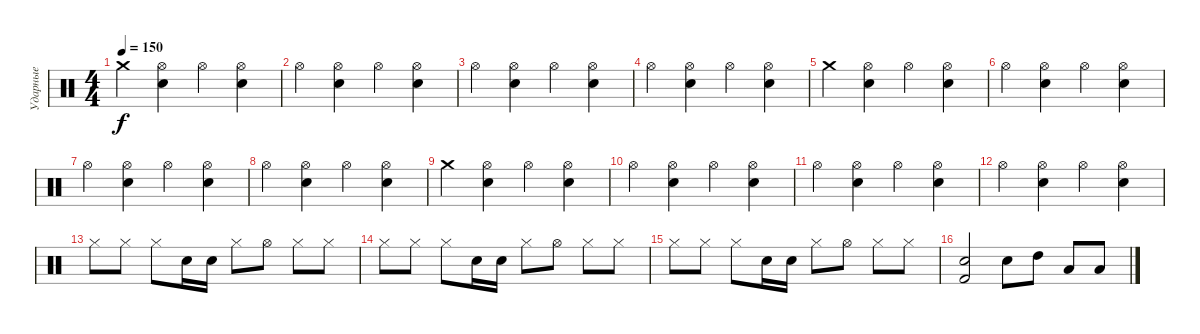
\track ("Ударные" "Ударные") {instrument percussion}
\staff {score}
\articulation defaults
\ts (4 4)
\tempo 150
\clef neutral
\ks c "Crash medium (hit)".4{dy f}
("Hi-Hat (open)" "Snare (hit) 2").4 "Hi-Hat (open)".4 ("Hi-Hat (open)" "Snare (hit) 2").4 |
"Hi-Hat (open)".4 ("Hi-Hat (open)" "Snare (hit) 2").4 "Hi-Hat (open)".4 ("Hi-Hat (open)" "Snare (hit) 2").4 |
"Hi-Hat (open)".4 ("Hi-Hat (open)" "Snare (hit) 2").4 "Hi-Hat (open)".4 ("Hi-Hat (open)" "Snare (hit) 2").4 |
"Hi-Hat (open)".4 ("Hi-Hat (open)" "Snare (hit) 2").4 "Hi-Hat (open)".4 ("Hi-Hat (open)" "Snare (hit) 2").4 |
"Crash medium (hit)".4 ("Hi-Hat (open)" "Snare (hit) 2").4 "Hi-Hat (open)".4 ("Hi-Hat (open)" "Snare (hit) 2").4 |
"Hi-Hat (open)".4 ("Hi-Hat (open)" "Snare (hit) 2").4 "Hi-Hat (open)".4 ("Hi-Hat (open)" "Snare (hit) 2").4 |
"Hi-Hat (open)".4 ("Hi-Hat (open)" "Snare (hit) 2").4 "Hi-Hat (open)".4 ("Hi-Hat (open)" "Snare (hit) 2").4 |
"Hi-Hat (open)".4 ("Hi-Hat (open)" "Snare (hit) 2").4 "Hi-Hat (open)".4 ("Hi-Hat (open)" "Snare (hit) 2").4 |
"Crash medium (hit)".4 ("Hi-Hat (open)" "Snare (hit) 2").4 "Hi-Hat (open)".4 ("Hi-Hat (open)" "Snare (hit) 2").4 |
"Hi-Hat (open)".4 ("Hi-Hat (open)" "Snare (hit) 2").4 "Hi-Hat (open)".4 ("Hi-Hat (open)" "Snare (hit) 2").4 |
"Hi-Hat (open)".4 ("Hi-Hat (open)" "Snare (hit) 2").4 "Hi-Hat (open)".4 ("Hi-Hat (open)" "Snare (hit) 2").4 |
"Hi-Hat (open)".4 ("Hi-Hat (open)" "Snare (hit) 2").4 "Hi-Hat (open)".4 ("Hi-Hat (open)" "Snare (hit) 2").4 |
"Hi-Hat (closed)".8 "Hi-Hat (closed)".8 "Hi-Hat (closed)".8 "Snare (hit) 2".16 "Snare (hit) 2".16 "Hi-Hat (closed)".8 "Hi-Hat (open)".8 "Hi-Hat (closed)".8 "Hi-Hat (closed)".8 |
"Hi-Hat (closed)".8 "Hi-Hat (closed)".8 "Hi-Hat (closed)".8 "Snare (hit) 2".16 "Snare (hit) 2".16 "Hi-Hat (closed)".8 "Hi-Hat (open)".8 "Hi-Hat (closed)".8 "Hi-Hat (closed)".8 |
"Hi-Hat (closed)".8 "Hi-Hat (closed)".8 "Hi-Hat (closed)".8 "Snare (hit) 2".16 "Snare (hit) 2".16 "Hi-Hat (closed)".8 "Hi-Hat (open)".8 "Hi-Hat (closed)".8 "Hi-Hat (closed)".8 |
("Snare (hit) 2" "Kick (hit) 2").2 "Snare (hit) 2".8 "High Tom (hit)".8 "Low Tom (hit)".8 "Low Floor Tom (hit)".8
